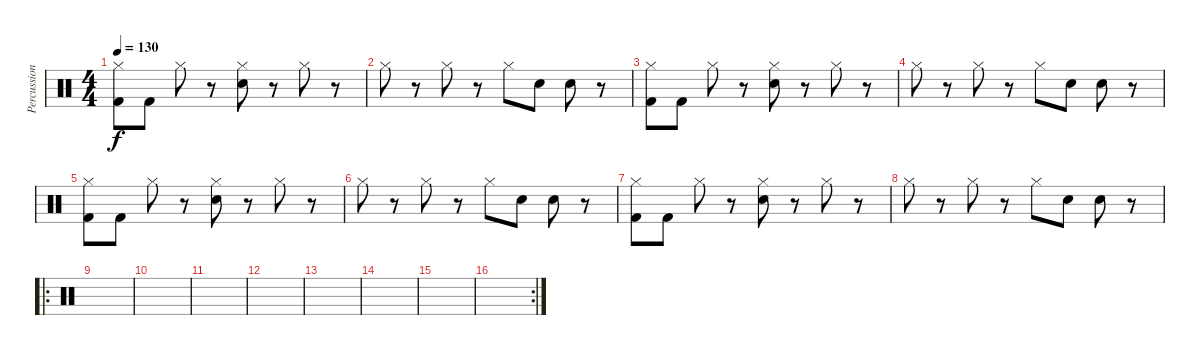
\track ("Percussion" "Percussion") {instrument percussion}
\staff {score}
\articulation defaults
\ts (4 4)
\tempo 130
\clef neutral
\ks c
("Hi-Hat (closed)" "Kick (hit) 2").8{dy f} "Kick (hit) 2".8 "Hi-Hat (closed)".8 r.8 ("Hi-Hat (closed)" "Electric Snare (hit)").8 r.8 "Hi-Hat (closed)".8 r.8 |
"Hi-Hat (closed)".8 r.8 "Hi-Hat (closed)".8 r.8 "Hi-Hat (closed)".8 "Electric Snare (hit)".8 "Electric Snare (hit)".8 r.8 |
("Hi-Hat (closed)" "Kick (hit) 2").8 "Kick (hit) 2".8 "Hi-Hat (closed)".8 r.8 ("Hi-Hat (closed)" "Electric Snare (hit)").8 r.8 "Hi-Hat (closed)".8 r.8 |
"Hi-Hat (closed)".8 r.8 "Hi-Hat (closed)".8 r.8 "Hi-Hat (closed)".8 "Electric Snare (hit)".8 "Electric Snare (hit)".8 r.8 |
("Hi-Hat (closed)" "Kick (hit) 2").8 "Kick (hit) 2".8 "Hi-Hat (closed)".8 r.8 ("Hi-Hat (closed)" "Electric Snare (hit)").8 r.8 "Hi-Hat (closed)".8 r.8 |
"Hi-Hat (closed)".8 r.8 "Hi-Hat (closed)".8 r.8 "Hi-Hat (closed)".8 "Electric Snare (hit)".8 "Electric Snare (hit)".8 r.8 |
("Hi-Hat (closed)" "Kick (hit) 2").8 "Kick (hit) 2".8 "Hi-Hat (closed)".8 r.8 ("Hi-Hat (closed)" "Electric Snare (hit)").8 r.8 "Hi-Hat (closed)".8 r.8 |
"Hi-Hat (closed)".8 r.8 "Hi-Hat (closed)".8 r.8 "Hi-Hat (closed)".8 "Electric Snare (hit)".8 "Electric Snare (hit)".8 r.8 |
\ro
|
|
|
|
|
|
|
\rc 2
